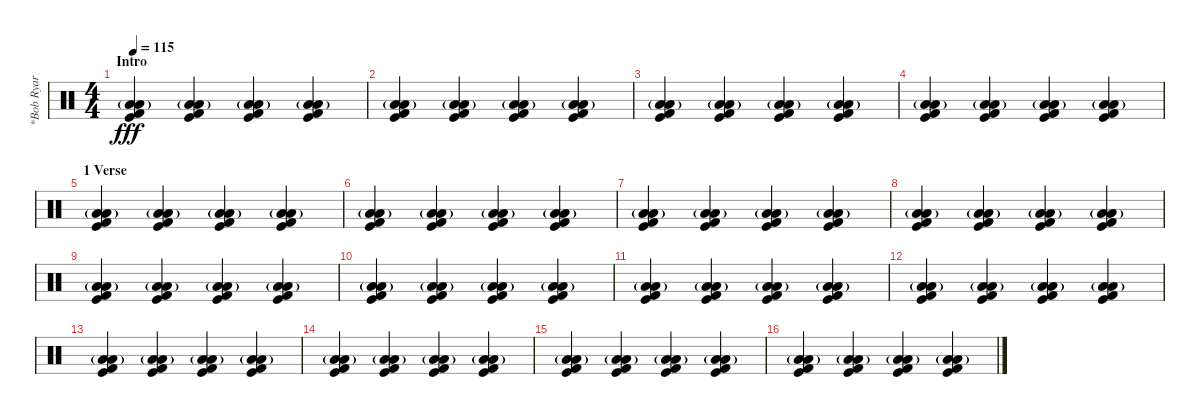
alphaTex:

\track ("*Bob Ryar (Drums)" "*Bob Ryar ") {instrument percussion}
\staff {score}
\articulation defaults
\ts (4 4)
\section ("" "Intro")
\tempo 115
\clef neutral
\ks c
("Low Tom (hit)"{g} "Low Floor Tom (hit)"{g} "Kick (hit)" "Kick (hit) 2").4{dy fff} ("Low Tom (hit)"{g} "Low Floor Tom (hit)"{g} "Kick (hit)" "Kick (hit) 2").4 ("Low Tom (hit)"{g} "Low Floor Tom (hit)"{g} "Kick (hit)" "Kick (hit) 2").4 ("Low Tom (hit)"{g} "Low Floor Tom (hit)"{g} "Kick (hit)" "Kick (hit) 2").4 |
("Low Tom (hit)"{g} "Low Floor Tom (hit)"{g} "Kick (hit)" "Kick (hit) 2").4 ("Low Tom (hit)"{g} "Low Floor Tom (hit)"{g} "Kick (hit)" "Kick (hit) 2").4 ("Low Tom (hit)"{g} "Low Floor Tom (hit)"{g} "Kick (hit)" "Kick (hit) 2").4 ("Low Tom (hit)"{g} "Low Floor Tom (hit)"{g} "Kick (hit)" "Kick (hit) 2").4 |
("Low Tom (hit)"{g} "Low Floor Tom (hit)"{g} "Kick (hit)" "Kick (hit) 2").4 ("Low Tom (hit)"{g} "Low Floor Tom (hit)"{g} "Kick (hit)" "Kick (hit) 2").4 ("Low Tom (hit)"{g} "Low Floor Tom (hit)"{g} "Kick (hit)" "Kick (hit) 2").4 ("Low Tom (hit)"{g} "Low Floor Tom (hit)"{g} "Kick (hit)" "Kick (hit) 2").4 |
("Low Tom (hit)"{g} "Low Floor Tom (hit)"{g} "Kick (hit)" "Kick (hit) 2").4 ("Low Tom (hit)"{g} "Low Floor Tom (hit)"{g} "Kick (hit)" "Kick (hit) 2").4 ("Low Tom (hit)"{g} "Low Floor Tom (hit)"{g} "Kick (hit)" "Kick (hit) 2").4 ("Low Tom (hit)"{g} "Low Floor Tom (hit)"{g} "Kick (hit)" "Kick (hit) 2").4 |
\section ("" "1 Verse")
("Low Tom (hit)"{g} "Low Floor Tom (hit)"{g} "Kick (hit)" "Kick (hit) 2").4 ("Low Tom (hit)"{g} "Low Floor Tom (hit)"{g} "Kick (hit)" "Kick (hit) 2").4 ("Low Tom (hit)"{g} "Low Floor Tom (hit)"{g} "Kick (hit)" "Kick (hit) 2").4 ("Low Tom (hit)"{g} "Low Floor Tom (hit)"{g} "Kick (hit)" "Kick (hit) 2").4 |
("Low Tom (hit)"{g} "Low Floor Tom (hit)"{g} "Kick (hit)" "Kick (hit) 2").4 ("Low Tom (hit)"{g} "Low Floor Tom (hit)"{g} "Kick (hit)" "Kick (hit) 2").4 ("Low Tom (hit)"{g} "Low Floor Tom (hit)"{g} "Kick (hit)" "Kick (hit) 2").4 ("Low Tom (hit)"{g} "Low Floor Tom (hit)"{g} "Kick (hit)" "Kick (hit) 2").4 |
("Low Tom (hit)"{g} "Low Floor Tom (hit)"{g} "Kick (hit)" "Kick (hit) 2").4 ("Low Tom (hit)"{g} "Low Floor Tom (hit)"{g} "Kick (hit)" "Kick (hit) 2").4 ("Low Tom (hit)"{g} "Low Floor Tom (hit)"{g} "Kick (hit)" "Kick (hit) 2").4 ("Low Tom (hit)"{g} "Low Floor Tom (hit)"{g} "Kick (hit)" "Kick (hit) 2").4 |
("Low Tom (hit)"{g} "Low Floor Tom (hit)"{g} "Kick (hit)" "Kick (hit) 2").4 ("Low Tom (hit)"{g} "Low Floor Tom (hit)"{g} "Kick (hit)" "Kick (hit) 2").4 ("Low Tom (hit)"{g} "Low Floor Tom (hit)"{g} "Kick (hit)" "Kick (hit) 2").4 ("Low Tom (hit)"{g} "Low Floor Tom (hit)"{g} "Kick (hit)" "Kick (hit) 2").4 |
("Low Tom (hit)"{g} "Low Floor Tom (hit)"{g} "Kick (hit)" "Kick (hit) 2").4 ("Low Tom (hit)"{g} "Low Floor Tom (hit)"{g} "Kick (hit)" "Kick (hit) 2").4 ("Low Tom (hit)"{g} "Low Floor Tom (hit)"{g} "Kick (hit)" "Kick (hit) 2").4 ("Low Tom (hit)"{g} "Low Floor Tom (hit)"{g} "Kick (hit)" "Kick (hit) 2").4 |
("Low Tom (hit)"{g} "Low Floor Tom (hit)"{g} "Kick (hit)" "Kick (hit) 2").4 ("Low Tom (hit)"{g} "Low Floor Tom (hit)"{g} "Kick (hit)" "Kick (hit) 2").4 ("Low Tom (hit)"{g} "Low Floor Tom (hit)"{g} "Kick (hit)" "Kick (hit) 2").4 ("Low Tom (hit)"{g} "Low Floor Tom (hit)"{g} "Kick (hit)" "Kick (hit) 2").4 |
("Low Tom (hit)"{g} "Low Floor Tom (hit)"{g} "Kick (hit)" "Kick (hit) 2").4 ("Low Tom (hit)"{g} "Low Floor Tom (hit)"{g} "Kick (hit)" "Kick (hit) 2").4 ("Low Tom (hit)"{g} "Low Floor Tom (hit)"{g} "Kick (hit)" "Kick (hit) 2").4 ("Low Tom (hit)"{g} "Low Floor Tom (hit)"{g} "Kick (hit)" "Kick (hit) 2").4 |
("Low Tom (hit)"{g} "Low Floor Tom (hit)"{g} "Kick (hit)" "Kick (hit) 2").4 ("Low Tom (hit)"{g} "Low Floor Tom (hit)"{g} "Kick (hit)" "Kick (hit) 2").4 ("Low Tom (hit)"{g} "Low Floor Tom (hit)"{g} "Kick (hit)" "Kick (hit) 2").4 ("Low Tom (hit)"{g} "Low Floor Tom (hit)"{g} "Kick (hit)" "Kick (hit) 2").4 |
("Low Tom (hit)"{g} "Low Floor Tom (hit)"{g} "Kick (hit)" "Kick (hit) 2").4 ("Low Tom (hit)"{g} "Low Floor Tom (hit)"{g} "Kick (hit)" "Kick (hit) 2").4 ("Low Tom (hit)"{g} "Low Floor Tom (hit)"{g} "Kick (hit)" "Kick (hit) 2").4 ("Low Tom (hit)"{g} "Low Floor Tom (hit)"{g} "Kick (hit)" "Kick (hit) 2").4 |
("Low Tom (hit)"{g} "Low Floor Tom (hit)"{g} "Kick (hit)" "Kick (hit) 2").4 ("Low Tom (hit)"{g} "Low Floor Tom (hit)"{g} "Kick (hit)" "Kick (hit) 2").4 ("Low Tom (hit)"{g} "Low Floor Tom (hit)"{g} "Kick (hit)" "Kick (hit) 2").4 ("Low Tom (hit)"{g} "Low Floor Tom (hit)"{g} "Kick (hit)" "Kick (hit) 2").4 |
("Low Tom (hit)"{g} "Low Floor Tom (hit)"{g} "Kick (hit)" "Kick (hit) 2").4 ("Low Tom (hit)"{g} "Low Floor Tom (hit)"{g} "Kick (hit)" "Kick (hit) 2").4 ("Low Tom (hit)"{g} "Low Floor Tom (hit)"{g} "Kick (hit)" "Kick (hit) 2").4 ("Low Tom (hit)"{g} "Low Floor Tom (hit)"{g} "Kick (hit)" "Kick (hit) 2").4 |
("Low Tom (hit)"{g} "Low Floor Tom (hit)"{g} "Kick (hit)" "Kick (hit) 2").4 ("Low Tom (hit)"{g} "Low Floor Tom (hit)"{g} "Kick (hit)" "Kick (hit) 2").4 ("Low Tom (hit)"{g} "Low Floor Tom (hit)"{g} "Kick (hit)" "Kick (hit) 2").4 ("Low Tom (hit)"{g} "Low Floor Tom (hit)"{g} "Kick (hit)" "Kick (hit) 2").4
